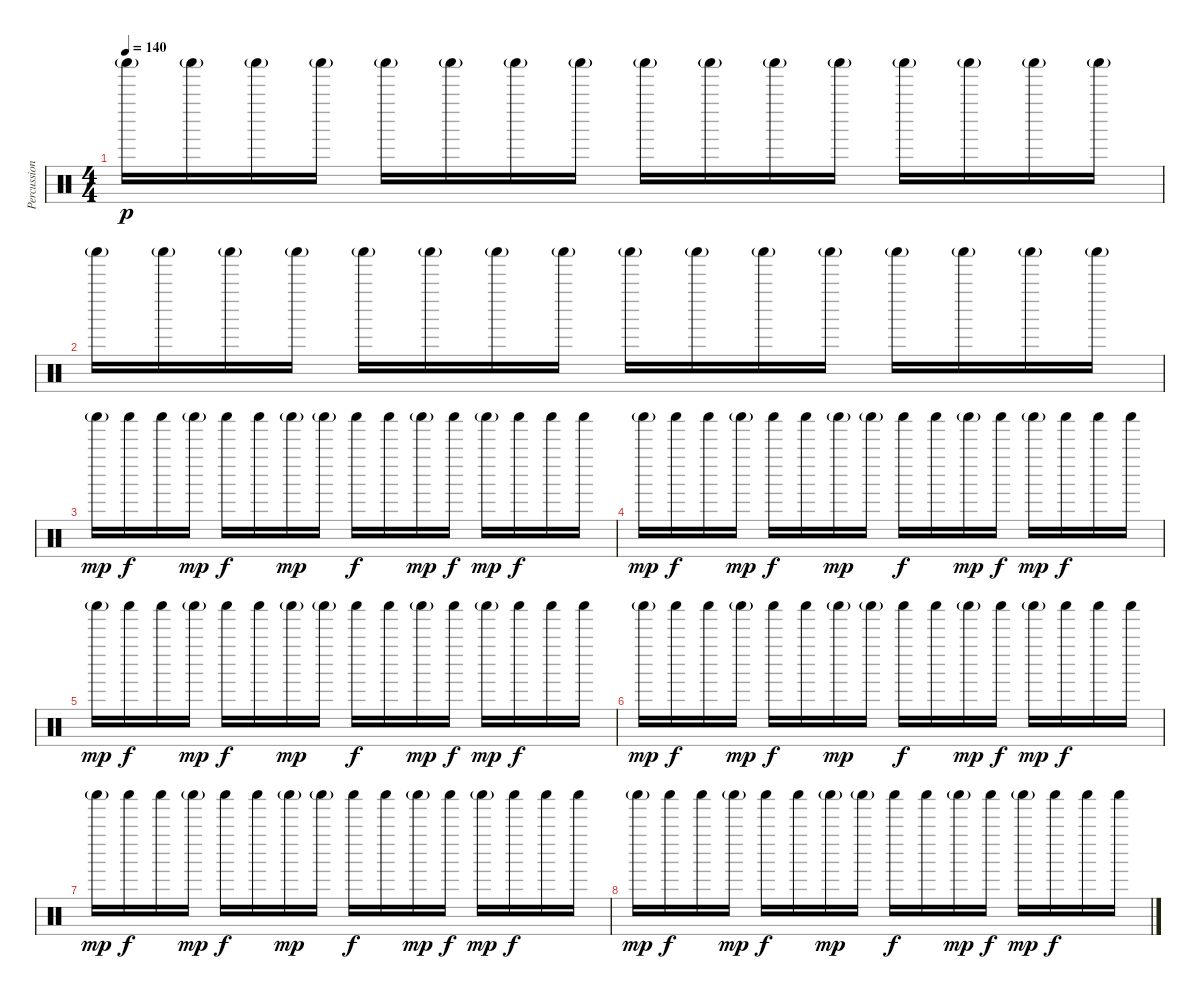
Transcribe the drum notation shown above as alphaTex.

\track ("Percussion" "Percussion") {instrument percussion}
\staff {score}
\articulation defaults
\ts (4 4)
\tempo 140
\clef neutral
\ks c "Shaker (hit)"{g}.16{dy p} "Shaker (hit)"{g}.16 "Shaker (hit)"{g}.16 "Shaker (hit)"{g}.16 "Shaker (hit)"{g}.16 "Shaker (hit)"{g}.16 "Shaker (hit)"{g}.16 "Shaker (hit)"{g}.16 "Shaker (hit)"{g}.16 "Shaker (hit)"{g}.16 "Shaker (hit)"{g}.16 "Shaker (hit)"{g}.16 "Shaker (hit)"{g}.16 "Shaker (hit)"{g}.16 "Shaker (hit)"{g}.16 "Shaker (hit)"{g}.16
|
"Shaker (hit)"{g}.16 "Shaker (hit)"{g}.16 "Shaker (hit)"{g}.16 "Shaker (hit)"{g}.16 "Shaker (hit)"{g}.16 "Shaker (hit)"{g}.16 "Shaker (hit)"{g}.16 "Shaker (hit)"{g}.16 "Shaker (hit)"{g}.16 "Shaker (hit)"{g}.16 "Shaker (hit)"{g}.16 "Shaker (hit)"{g}.16 "Shaker (hit)"{g}.16 "Shaker (hit)"{g}.16 "Shaker (hit)"{g}.16 "Shaker (hit)"{g}.16 |
"Shaker (hit)"{g}.16{dy mp} "Shaker (hit)".16{dy f} "Shaker (hit)".16 "Shaker (hit)"{g}.16{dy mp} "Shaker (hit)".16{dy f} "Shaker (hit)".16 "Shaker (hit)"{g}.16{dy mp} "Shaker (hit)"{g}.16 "Shaker (hit)".16{dy f} "Shaker (hit)".16 "Shaker (hit)"{g}.16{dy mp} "Shaker (hit)".16{dy f} "Shaker (hit)"{g}.16{dy mp} "Shaker (hit)".16{dy f} "Shaker (hit)".16 "Shaker (hit)".16 |
"Shaker (hit)"{g}.16{dy mp} "Shaker (hit)".16{dy f} "Shaker (hit)".16 "Shaker (hit)"{g}.16{dy mp} "Shaker (hit)".16{dy f} "Shaker (hit)".16 "Shaker (hit)"{g}.16{dy mp} "Shaker (hit)"{g}.16 "Shaker (hit)".16{dy f} "Shaker (hit)".16 "Shaker (hit)"{g}.16{dy mp} "Shaker (hit)".16{dy f} "Shaker (hit)"{g}.16{dy mp} "Shaker (hit)".16{dy f} "Shaker (hit)".16 "Shaker (hit)".16 |
"Shaker (hit)"{g}.16{dy mp} "Shaker (hit)".16{dy f} "Shaker (hit)".16 "Shaker (hit)"{g}.16{dy mp} "Shaker (hit)".16{dy f} "Shaker (hit)".16 "Shaker (hit)"{g}.16{dy mp} "Shaker (hit)"{g}.16 "Shaker (hit)".16{dy f} "Shaker (hit)".16 "Shaker (hit)"{g}.16{dy mp} "Shaker (hit)".16{dy f} "Shaker (hit)"{g}.16{dy mp} "Shaker (hit)".16{dy f} "Shaker (hit)".16 "Shaker (hit)".16 |
"Shaker (hit)"{g}.16{dy mp} "Shaker (hit)".16{dy f} "Shaker (hit)".16 "Shaker (hit)"{g}.16{dy mp} "Shaker (hit)".16{dy f} "Shaker (hit)".16 "Shaker (hit)"{g}.16{dy mp} "Shaker (hit)"{g}.16 "Shaker (hit)".16{dy f} "Shaker (hit)".16 "Shaker (hit)"{g}.16{dy mp} "Shaker (hit)".16{dy f} "Shaker (hit)"{g}.16{dy mp} "Shaker (hit)".16{dy f} "Shaker (hit)".16 "Shaker (hit)".16 |
"Shaker (hit)"{g}.16{dy mp} "Shaker (hit)".16{dy f} "Shaker (hit)".16 "Shaker (hit)"{g}.16{dy mp} "Shaker (hit)".16{dy f} "Shaker (hit)".16 "Shaker (hit)"{g}.16{dy mp} "Shaker (hit)"{g}.16 "Shaker (hit)".16{dy f} "Shaker (hit)".16 "Shaker (hit)"{g}.16{dy mp} "Shaker (hit)".16{dy f} "Shaker (hit)"{g}.16{dy mp} "Shaker (hit)".16{dy f} "Shaker (hit)".16 "Shaker (hit)".16 |
"Shaker (hit)"{g}.16{dy mp} "Shaker (hit)".16{dy f} "Shaker (hit)".16 "Shaker (hit)"{g}.16{dy mp} "Shaker (hit)".16{dy f} "Shaker (hit)".16 "Shaker (hit)"{g}.16{dy mp} "Shaker (hit)"{g}.16 "Shaker (hit)".16{dy f} "Shaker (hit)".16 "Shaker (hit)"{g}.16{dy mp} "Shaker (hit)".16{dy f} "Shaker (hit)"{g}.16{dy mp} "Shaker (hit)".16{dy f} "Shaker (hit)".16 "Shaker (hit)".16
